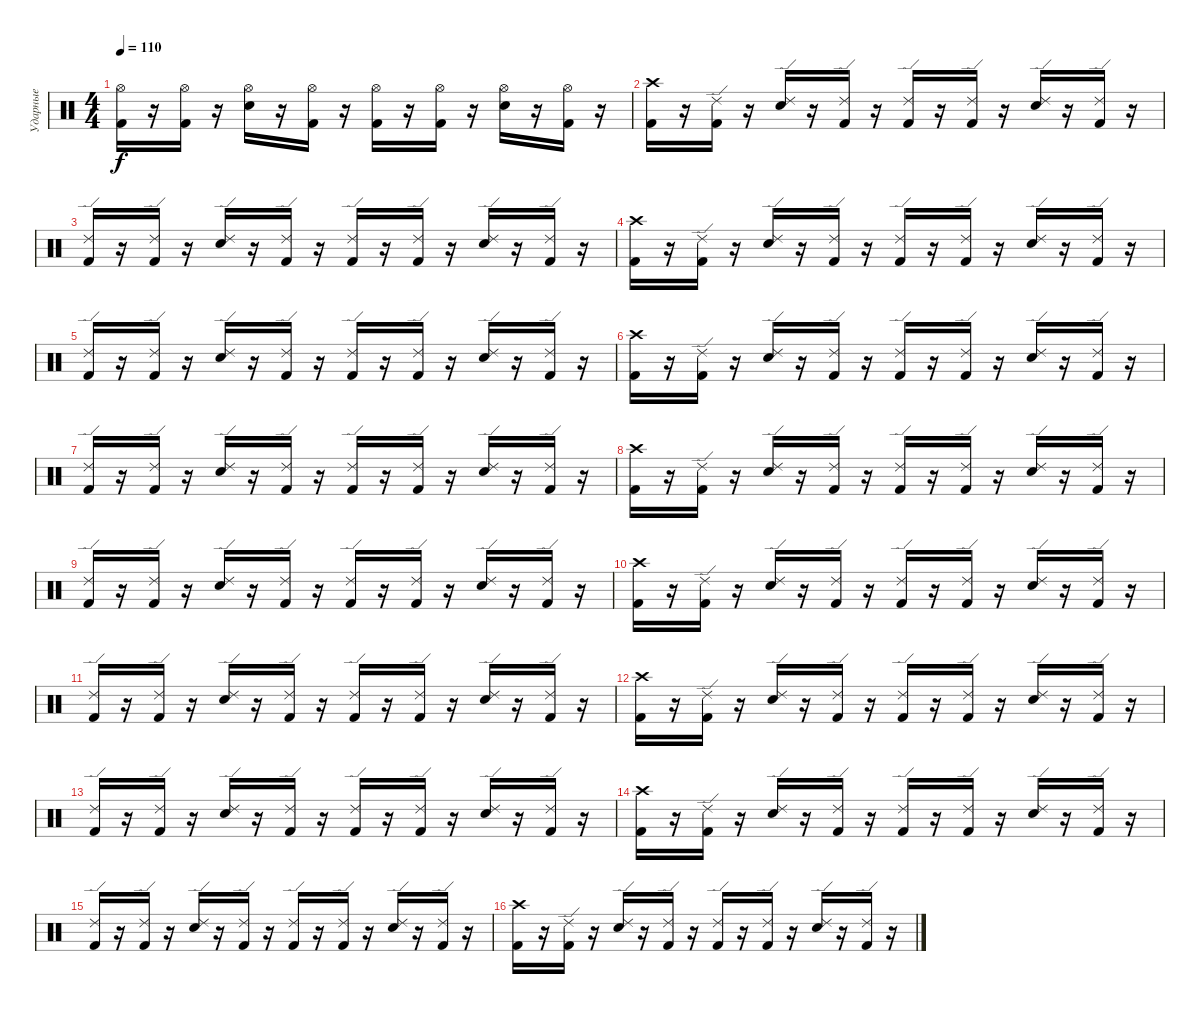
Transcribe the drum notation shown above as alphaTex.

\track ("Ударные" "Ударные") {instrument percussion}
\staff {score}
\articulation defaults
\ts (4 4)
\tempo 110
\clef neutral
\ks c
("Hi-Hat (open)" "Kick (hit) 2").16{dy f} r.16 ("Hi-Hat (open)" "Kick (hit) 2").16 r.16 ("Hi-Hat (open)" "Electric Snare (hit)").16 r.16 ("Hi-Hat (open)" "Kick (hit) 2").16 r.16 ("Hi-Hat (open)" "Kick (hit) 2").16 r.16 ("Hi-Hat (open)" "Kick (hit) 2").16 r.16 ("Hi-Hat (open)" "Electric Snare (hit)").16 r.16 ("Hi-Hat (open)" "Kick (hit) 2").16 r.16 |
("Crash high (hit)" "Kick (hit) 2").16 r.16 ("Ride (edge) 2" "Kick (hit) 2").16 r.16 ("Ride (edge) 2" "Electric Snare (hit)").16 r.16 ("Ride (edge) 2" "Kick (hit) 2").16 r.16 ("Ride (edge) 2" "Kick (hit) 2").16 r.16 ("Ride (edge) 2" "Kick (hit) 2").16 r.16 ("Ride (edge) 2" "Electric Snare (hit)").16 r.16 ("Ride (edge) 2" "Kick (hit) 2").16 r.16 |
("Ride (edge) 2" "Kick (hit) 2").16 r.16 ("Ride (edge) 2" "Kick (hit) 2").16 r.16 ("Ride (edge) 2" "Electric Snare (hit)").16 r.16 ("Ride (edge) 2" "Kick (hit) 2").16 r.16 ("Ride (edge) 2" "Kick (hit) 2").16 r.16 ("Ride (edge) 2" "Kick (hit) 2").16 r.16 ("Ride (edge) 2" "Electric Snare (hit)").16 r.16 ("Ride (edge) 2" "Kick (hit) 2").16 r.16 |
("Crash high (hit)" "Kick (hit) 2").16 r.16 ("Ride (edge) 2" "Kick (hit) 2").16 r.16 ("Ride (edge) 2" "Electric Snare (hit)").16 r.16 ("Ride (edge) 2" "Kick (hit) 2").16 r.16 ("Ride (edge) 2" "Kick (hit) 2").16 r.16 ("Ride (edge) 2" "Kick (hit) 2").16 r.16 ("Ride (edge) 2" "Electric Snare (hit)").16 r.16 ("Ride (edge) 2" "Kick (hit) 2").16 r.16 |
("Ride (edge) 2" "Kick (hit) 2").16 r.16 ("Ride (edge) 2" "Kick (hit) 2").16 r.16 ("Ride (edge) 2" "Electric Snare (hit)").16 r.16 ("Ride (edge) 2" "Kick (hit) 2").16 r.16 ("Ride (edge) 2" "Kick (hit) 2").16 r.16 ("Ride (edge) 2" "Kick (hit) 2").16 r.16 ("Ride (edge) 2" "Electric Snare (hit)").16 r.16 ("Ride (edge) 2" "Kick (hit) 2").16 r.16 |
("Crash high (hit)" "Kick (hit) 2").16 r.16 ("Ride (edge) 2" "Kick (hit) 2").16 r.16 ("Ride (edge) 2" "Electric Snare (hit)").16 r.16 ("Ride (edge) 2" "Kick (hit) 2").16 r.16 ("Ride (edge) 2" "Kick (hit) 2").16 r.16 ("Ride (edge) 2" "Kick (hit) 2").16 r.16 ("Ride (edge) 2" "Electric Snare (hit)").16 r.16 ("Ride (edge) 2" "Kick (hit) 2").16 r.16 |
("Ride (edge) 2" "Kick (hit) 2").16 r.16 ("Ride (edge) 2" "Kick (hit) 2").16 r.16 ("Ride (edge) 2" "Electric Snare (hit)").16 r.16 ("Ride (edge) 2" "Kick (hit) 2").16 r.16 ("Ride (edge) 2" "Kick (hit) 2").16 r.16 ("Ride (edge) 2" "Kick (hit) 2").16 r.16 ("Ride (edge) 2" "Electric Snare (hit)").16 r.16 ("Ride (edge) 2" "Kick (hit) 2").16 r.16 |
("Crash high (hit)" "Kick (hit) 2").16 r.16 ("Ride (edge) 2" "Kick (hit) 2").16 r.16 ("Ride (edge) 2" "Electric Snare (hit)").16 r.16 ("Ride (edge) 2" "Kick (hit) 2").16 r.16 ("Ride (edge) 2" "Kick (hit) 2").16 r.16 ("Ride (edge) 2" "Kick (hit) 2").16 r.16 ("Ride (edge) 2" "Electric Snare (hit)").16 r.16 ("Ride (edge) 2" "Kick (hit) 2").16 r.16 |
("Ride (edge) 2" "Kick (hit) 2").16 r.16 ("Ride (edge) 2" "Kick (hit) 2").16 r.16 ("Ride (edge) 2" "Electric Snare (hit)").16 r.16 ("Ride (edge) 2" "Kick (hit) 2").16 r.16 ("Ride (edge) 2" "Kick (hit) 2").16 r.16 ("Ride (edge) 2" "Kick (hit) 2").16 r.16 ("Ride (edge) 2" "Electric Snare (hit)").16 r.16 ("Ride (edge) 2" "Kick (hit) 2").16 r.16 |
("Crash high (hit)" "Kick (hit) 2").16 r.16 ("Ride (edge) 2" "Kick (hit) 2").16 r.16 ("Ride (edge) 2" "Electric Snare (hit)").16 r.16 ("Ride (edge) 2" "Kick (hit) 2").16 r.16 ("Ride (edge) 2" "Kick (hit) 2").16 r.16 ("Ride (edge) 2" "Kick (hit) 2").16 r.16 ("Ride (edge) 2" "Electric Snare (hit)").16 r.16 ("Ride (edge) 2" "Kick (hit) 2").16 r.16 |
("Ride (edge) 2" "Kick (hit) 2").16 r.16 ("Ride (edge) 2" "Kick (hit) 2").16 r.16 ("Ride (edge) 2" "Electric Snare (hit)").16 r.16 ("Ride (edge) 2" "Kick (hit) 2").16 r.16 ("Ride (edge) 2" "Kick (hit) 2").16 r.16 ("Ride (edge) 2" "Kick (hit) 2").16 r.16 ("Ride (edge) 2" "Electric Snare (hit)").16 r.16 ("Ride (edge) 2" "Kick (hit) 2").16 r.16 |
("Crash high (hit)" "Kick (hit) 2").16 r.16 ("Ride (edge) 2" "Kick (hit) 2").16 r.16 ("Ride (edge) 2" "Electric Snare (hit)").16 r.16 ("Ride (edge) 2" "Kick (hit) 2").16 r.16 ("Ride (edge) 2" "Kick (hit) 2").16 r.16 ("Ride (edge) 2" "Kick (hit) 2").16 r.16 ("Ride (edge) 2" "Electric Snare (hit)").16 r.16 ("Ride (edge) 2" "Kick (hit) 2").16 r.16 |
("Ride (edge) 2" "Kick (hit) 2").16 r.16 ("Ride (edge) 2" "Kick (hit) 2").16 r.16 ("Ride (edge) 2" "Electric Snare (hit)").16 r.16 ("Ride (edge) 2" "Kick (hit) 2").16 r.16 ("Ride (edge) 2" "Kick (hit) 2").16 r.16 ("Ride (edge) 2" "Kick (hit) 2").16 r.16 ("Ride (edge) 2" "Electric Snare (hit)").16 r.16 ("Ride (edge) 2" "Kick (hit) 2").16 r.16 |
("Crash high (hit)" "Kick (hit) 2").16 r.16 ("Ride (edge) 2" "Kick (hit) 2").16 r.16 ("Ride (edge) 2" "Electric Snare (hit)").16 r.16 ("Ride (edge) 2" "Kick (hit) 2").16 r.16 ("Ride (edge) 2" "Kick (hit) 2").16 r.16 ("Ride (edge) 2" "Kick (hit) 2").16 r.16 ("Ride (edge) 2" "Electric Snare (hit)").16 r.16 ("Ride (edge) 2" "Kick (hit) 2").16 r.16 |
("Ride (edge) 2" "Kick (hit) 2").16 r.16 ("Ride (edge) 2" "Kick (hit) 2").16 r.16 ("Ride (edge) 2" "Electric Snare (hit)").16 r.16 ("Ride (edge) 2" "Kick (hit) 2").16 r.16 ("Ride (edge) 2" "Kick (hit) 2").16 r.16 ("Ride (edge) 2" "Kick (hit) 2").16 r.16 ("Ride (edge) 2" "Electric Snare (hit)").16 r.16 ("Ride (edge) 2" "Kick (hit) 2").16 r.16 |
("Crash high (hit)" "Kick (hit) 2").16 r.16 ("Ride (edge) 2" "Kick (hit) 2").16 r.16 ("Ride (edge) 2" "Electric Snare (hit)").16 r.16 ("Ride (edge) 2" "Kick (hit) 2").16 r.16 ("Ride (edge) 2" "Kick (hit) 2").16 r.16 ("Ride (edge) 2" "Kick (hit) 2").16 r.16 ("Ride (edge) 2" "Electric Snare (hit)").16 r.16 ("Ride (edge) 2" "Kick (hit) 2").16 r.16
